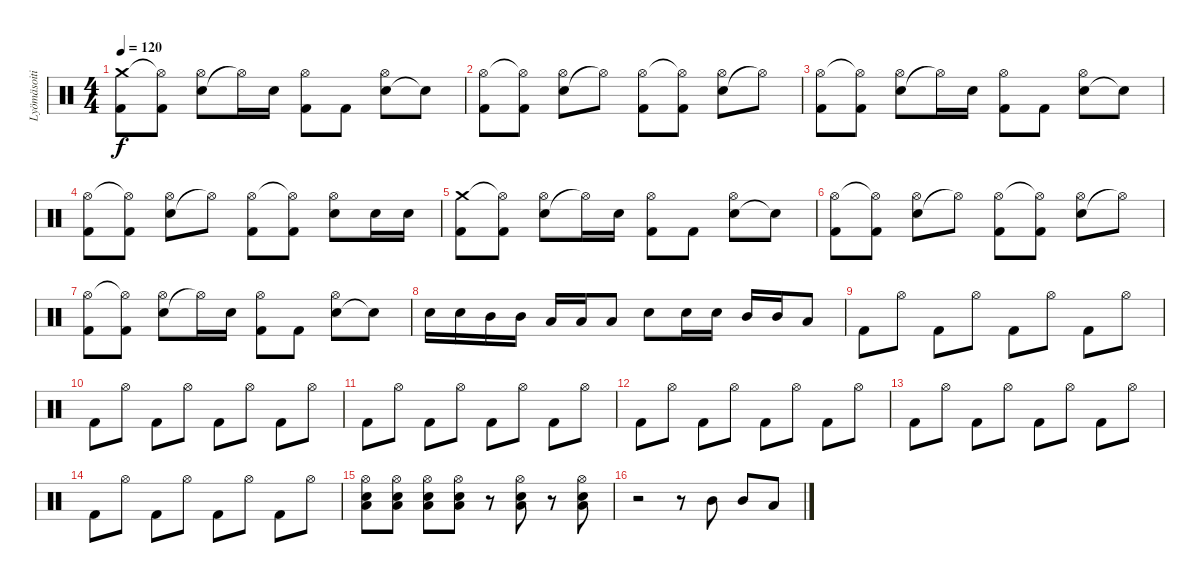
\track ("Lyömäsoitin" "Lyömäsoiti") {instrument percussion}
\staff {score}
\articulation defaults
\ts (4 4)
\tempo 120
\clef neutral
\ks c
("Kick (hit) 2" "Crash medium (hit)").8{dy f} ("Kick (hit) 2" "Hi-Hat (open)"{t}).8 ("Electric Snare (hit)" "Hi-Hat (open)").8 "Hi-Hat (open)"{t}.16 "Electric Snare (hit)".16 ("Kick (hit) 2" "Hi-Hat (open)").8 "Kick (hit) 2".8 ("Electric Snare (hit)" "Hi-Hat (open)").8 "Snare (hit)"{t}.8 |
("Kick (hit) 2" "Hi-Hat (open)").8 ("Kick (hit) 2" "Hi-Hat (open)"{t}).8 ("Electric Snare (hit)" "Hi-Hat (open)").8 "Hi-Hat (open)"{t}.8 ("Kick (hit) 2" "Hi-Hat (open)").8 ("Kick (hit) 2" "Hi-Hat (open)"{t}).8 ("Electric Snare (hit)" "Hi-Hat (open)").8 "Hi-Hat (open)"{t}.8 |
("Kick (hit) 2" "Hi-Hat (open)").8 ("Kick (hit) 2" "Hi-Hat (open)"{t}).8 ("Electric Snare (hit)" "Hi-Hat (open)").8 "Hi-Hat (open)"{t}.16 "Electric Snare (hit)".16 ("Kick (hit) 2" "Hi-Hat (open)").8 "Kick (hit) 2".8 ("Electric Snare (hit)" "Hi-Hat (open)").8 "Snare (hit)"{t}.8 |
("Kick (hit) 2" "Hi-Hat (open)").8 ("Kick (hit) 2" "Hi-Hat (open)"{t}).8 ("Electric Snare (hit)" "Hi-Hat (open)").8 "Hi-Hat (open)"{t}.8 ("Kick (hit) 2" "Hi-Hat (open)").8 ("Kick (hit) 2" "Hi-Hat (open)"{t}).8 ("Electric Snare (hit)" "Hi-Hat (open)").8 "Electric Snare (hit)".16 "Electric Snare (hit)".16 |
("Kick (hit) 2" "Crash medium (hit)").8 ("Kick (hit) 2" "Hi-Hat (open)"{t}).8 ("Electric Snare (hit)" "Hi-Hat (open)").8 "Hi-Hat (open)"{t}.16 "Electric Snare (hit)".16 ("Kick (hit) 2" "Hi-Hat (open)").8 "Kick (hit) 2".8 ("Electric Snare (hit)" "Hi-Hat (open)").8 "Snare (hit)"{t}.8 |
("Kick (hit) 2" "Hi-Hat (open)").8 ("Kick (hit) 2" "Hi-Hat (open)"{t}).8 ("Electric Snare (hit)" "Hi-Hat (open)").8 "Hi-Hat (open)"{t}.8 ("Kick (hit) 2" "Hi-Hat (open)").8 ("Kick (hit) 2" "Hi-Hat (open)"{t}).8 ("Electric Snare (hit)" "Hi-Hat (open)").8 "Hi-Hat (open)"{t}.8 |
("Kick (hit) 2" "Hi-Hat (open)").8 ("Kick (hit) 2" "Hi-Hat (open)"{t}).8 ("Electric Snare (hit)" "Hi-Hat (open)").8 "Hi-Hat (open)"{t}.16 "Electric Snare (hit)".16 ("Kick (hit) 2" "Hi-Hat (open)").8 "Kick (hit) 2".8 ("Electric Snare (hit)" "Hi-Hat (open)").8 "Snare (hit)"{t}.8 |
"Electric Snare (hit)".16 "Electric Snare (hit)".16 "Mid Tom (hit)".16 "Mid Tom (hit)".16 "Low Tom (hit)".16 "Low Tom (hit)".16 "Low Tom (hit)".8 "Electric Snare (hit)".8 "Electric Snare (hit)".16 "Electric Snare (hit)".16 "Mid Tom (hit)".16 "Mid Tom (hit)".16 "Low Tom (hit)".8 |
"Kick (hit) 2".8 "Hi-Hat (open)".8 "Kick (hit) 2".8 "Hi-Hat (open)".8 "Kick (hit) 2".8 "Hi-Hat (open)".8 "Kick (hit) 2".8 "Hi-Hat (open)".8 |
"Kick (hit) 2".8 "Hi-Hat (open)".8 "Kick (hit) 2".8 "Hi-Hat (open)".8 "Kick (hit) 2".8 "Hi-Hat (open)".8 "Kick (hit) 2".8 "Hi-Hat (open)".8 |
"Kick (hit) 2".8 "Hi-Hat (open)".8 "Kick (hit) 2".8 "Hi-Hat (open)".8 "Kick (hit) 2".8 "Hi-Hat (open)".8 "Kick (hit) 2".8 "Hi-Hat (open)".8 |
"Kick (hit) 2".8 "Hi-Hat (open)".8 "Kick (hit) 2".8 "Hi-Hat (open)".8 "Kick (hit) 2".8 "Hi-Hat (open)".8 "Kick (hit) 2".8 "Hi-Hat (open)".8 |
"Kick (hit) 2".8 "Hi-Hat (open)".8 "Kick (hit) 2".8 "Hi-Hat (open)".8 "Kick (hit) 2".8 "Hi-Hat (open)".8 "Kick (hit) 2".8 "Hi-Hat (open)".8 |
"Kick (hit) 2".8 "Hi-Hat (open)".8 "Kick (hit) 2".8 "Hi-Hat (open)".8 "Kick (hit) 2".8 "Hi-Hat (open)".8 "Kick (hit) 2".8 "Hi-Hat (open)".8 |
("Low Tom (hit)" "Electric Snare (hit)" "Hi-Hat (open)").8 ("Low Tom (hit)" "Electric Snare (hit)" "Hi-Hat (open)").8 ("Low Tom (hit)" "Electric Snare (hit)" "Hi-Hat (open)").8 ("Low Tom (hit)" "Electric Snare (hit)" "Hi-Hat (open)").8 r.8 ("Low Tom (hit)" "Electric Snare (hit)" "Hi-Hat (open)").8 r.8 ("Low Tom (hit)" "Electric Snare (hit)" "Hi-Hat (open)").8 |
r.2 r.8 "Mid Tom (hit)".8 "Mid Tom (hit)".8 "Low Tom (hit)".8
